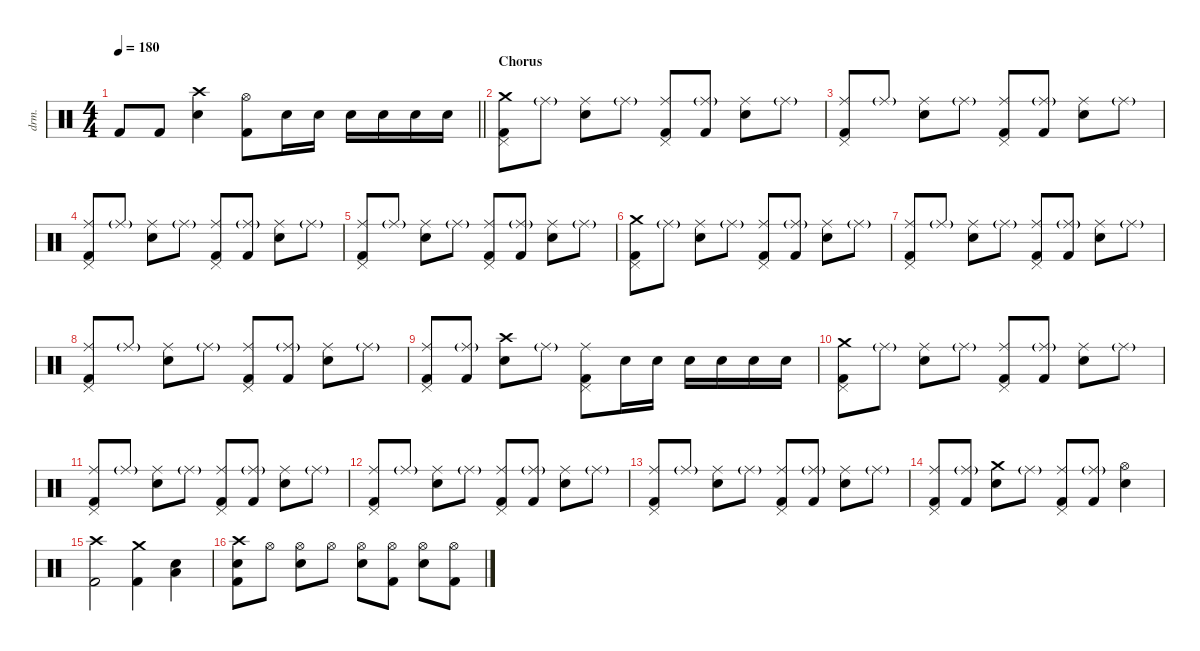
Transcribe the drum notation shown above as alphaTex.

\defaultSystemsLayout 4
\hideDynamics
\bracketExtendMode nobrackets
\otherSystemsTrackNameOrientation horizontal
\track ("Drums: Ritsu Tainaka" "drm.") {instrument percussion}
\staff {score}
\articulation defaults
\ts (4 4)
\tempo 180
\clef neutral
\barLineRight lightlight
\ks c "Kick (hit) 2".8{dy f beam Up} "Kick (hit) 2".8{beam Up}
("Crash high (hit)" "Snare (hit) 2").4{beam Down} ("Hi-Hat (open)" "Kick (hit) 2").8{beam Down} "Snare (hit) 2".16{beam Down} "Snare (hit) 2".16{beam Down} "Snare (hit) 2".16{beam Down} "Snare (hit) 2".16{beam Down} "Snare (hit) 2".16{beam Down} "Snare (hit) 2".16{beam Down} |
\section ("" "Chorus")
("Crash medium (hit)" "Pedal Hi-Hat (hit)" "Kick (hit) 2").8{beam Down} "Ride (middle)"{g}.8{dy mf beam Down} ("Ride (middle)" "Snare (hit) 2").8{dy f beam Down} "Ride (middle)"{g}.8{dy mf beam Down} ("Ride (middle)" "Pedal Hi-Hat (hit)" "Kick (hit) 2").8{dy f beam Up} ("Ride (middle)"{g} "Kick (hit) 2").8{beam Up} ("Ride (middle)" "Snare (hit) 2").8{beam Down} "Ride (middle)"{g}.8{dy mf beam Down} |
("Ride (middle)" "Pedal Hi-Hat (hit)" "Kick (hit) 2").8{dy f beam Up} "Ride (middle)"{g}.8{dy mf beam Up} ("Ride (middle)" "Snare (hit) 2").8{dy f beam Down} "Ride (middle)"{g}.8{dy mf beam Down} ("Ride (middle)" "Pedal Hi-Hat (hit)" "Kick (hit) 2").8{dy f beam Up} ("Ride (middle)"{g} "Kick (hit) 2").8{beam Up} ("Ride (middle)" "Snare (hit) 2").8{beam Down} "Ride (middle)"{g}.8{dy mf beam Down} |
("Ride (middle)" "Pedal Hi-Hat (hit)" "Kick (hit) 2").8{dy f beam Up} "Ride (middle)"{g}.8{dy mf beam Up} ("Ride (middle)" "Snare (hit) 2").8{dy f beam Down} "Ride (middle)"{g}.8{dy mf beam Down} ("Ride (middle)" "Pedal Hi-Hat (hit)" "Kick (hit) 2").8{dy f beam Up} ("Ride (middle)"{g} "Kick (hit) 2").8{beam Up} ("Ride (middle)" "Snare (hit) 2").8{beam Down} "Ride (middle)"{g}.8{dy mf beam Down} |
("Ride (middle)" "Pedal Hi-Hat (hit)" "Kick (hit) 2").8{dy f beam Up} "Ride (middle)"{g}.8{dy mf beam Up} ("Ride (middle)" "Snare (hit) 2").8{dy f beam Down} "Ride (middle)"{g}.8{dy mf beam Down} ("Ride (middle)" "Pedal Hi-Hat (hit)" "Kick (hit) 2").8{dy f beam Up} ("Ride (middle)"{g} "Kick (hit) 2").8{beam Up} ("Ride (middle)" "Snare (hit) 2").8{beam Down} "Ride (middle)"{g}.8{dy mf beam Down} |
("Crash medium (hit)" "Pedal Hi-Hat (hit)" "Kick (hit) 2").8{dy f beam Down} "Ride (middle)"{g}.8{dy mf beam Down} ("Ride (middle)" "Snare (hit) 2").8{dy f beam Down} "Ride (middle)"{g}.8{dy mf beam Down} ("Ride (middle)" "Pedal Hi-Hat (hit)" "Kick (hit) 2").8{dy f beam Up} ("Ride (middle)"{g} "Kick (hit) 2").8{beam Up} ("Ride (middle)" "Snare (hit) 2").8{beam Down} "Ride (middle)"{g}.8{dy mf beam Down} |
("Ride (middle)" "Pedal Hi-Hat (hit)" "Kick (hit) 2").8{dy f beam Up} "Ride (middle)"{g}.8{dy mf beam Up} ("Ride (middle)" "Snare (hit) 2").8{dy f beam Down} "Ride (middle)"{g}.8{dy mf beam Down} ("Ride (middle)" "Pedal Hi-Hat (hit)" "Kick (hit) 2").8{dy f beam Up} ("Ride (middle)"{g} "Kick (hit) 2").8{beam Up} ("Ride (middle)" "Snare (hit) 2").8{beam Down} "Ride (middle)"{g}.8{dy mf beam Down} |
("Ride (middle)" "Pedal Hi-Hat (hit)" "Kick (hit) 2").8{dy f beam Up} "Ride (middle)"{g}.8{dy mf beam Up} ("Ride (middle)" "Snare (hit) 2").8{dy f beam Down} "Ride (middle)"{g}.8{dy mf beam Down} ("Ride (middle)" "Pedal Hi-Hat (hit)" "Kick (hit) 2").8{dy f beam Up} ("Ride (middle)"{g} "Kick (hit) 2").8{beam Up} ("Ride (middle)" "Snare (hit) 2").8{beam Down} "Ride (middle)"{g}.8{dy mf beam Down} |
("Ride (middle)" "Pedal Hi-Hat (hit)" "Kick (hit) 2").8{dy f beam Up} ("Ride (middle)"{g} "Kick (hit) 2").8{beam Up} ("Crash high (hit)" "Snare (hit) 2").8{beam Down} "Ride (middle)"{g}.8{dy mf beam Down} ("Ride (middle)" "Pedal Hi-Hat (hit)" "Kick (hit) 2").8{dy f beam Down} "Snare (hit) 2".16{beam Down} "Snare (hit) 2".16{beam Down} "Snare (hit) 2".16{beam Down} "Snare (hit) 2".16{beam Down} "Snare (hit) 2".16{beam Down} "Snare (hit) 2".16{beam Down} |
("Crash medium (hit)" "Pedal Hi-Hat (hit)" "Kick (hit) 2").8{beam Down} "Ride (middle)"{g}.8{dy mf beam Down} ("Ride (middle)" "Snare (hit) 2").8{dy f beam Down} "Ride (middle)"{g}.8{dy mf beam Down} ("Ride (middle)" "Pedal Hi-Hat (hit)" "Kick (hit) 2").8{dy f beam Up} ("Ride (middle)"{g} "Kick (hit) 2").8{beam Up} ("Ride (middle)" "Snare (hit) 2").8{beam Down} "Ride (middle)"{g}.8{dy mf beam Down} |
("Ride (middle)" "Pedal Hi-Hat (hit)" "Kick (hit) 2").8{dy f beam Up} "Ride (middle)"{g}.8{dy mf beam Up} ("Ride (middle)" "Snare (hit) 2").8{dy f beam Down} "Ride (middle)"{g}.8{dy mf beam Down} ("Ride (middle)" "Pedal Hi-Hat (hit)" "Kick (hit) 2").8{dy f beam Up} ("Ride (middle)"{g} "Kick (hit) 2").8{beam Up} ("Ride (middle)" "Snare (hit) 2").8{beam Down} "Ride (middle)"{g}.8{dy mf beam Down} |
("Ride (middle)" "Pedal Hi-Hat (hit)" "Kick (hit) 2").8{dy f beam Up} "Ride (middle)"{g}.8{dy mf beam Up} ("Ride (middle)" "Snare (hit) 2").8{dy f beam Down} "Ride (middle)"{g}.8{dy mf beam Down} ("Ride (middle)" "Pedal Hi-Hat (hit)" "Kick (hit) 2").8{dy f beam Up} ("Ride (middle)"{g} "Kick (hit) 2").8{beam Up} ("Ride (middle)" "Snare (hit) 2").8{beam Down} "Ride (middle)"{g}.8{dy mf beam Down} |
("Ride (middle)" "Pedal Hi-Hat (hit)" "Kick (hit) 2").8{dy f beam Up} "Ride (middle)"{g}.8{dy mf beam Up} ("Ride (middle)" "Snare (hit) 2").8{dy f beam Down} "Ride (middle)"{g}.8{dy mf beam Down} ("Ride (middle)" "Pedal Hi-Hat (hit)" "Kick (hit) 2").8{dy f beam Up} ("Ride (middle)"{g} "Kick (hit) 2").8{beam Up} ("Ride (middle)" "Snare (hit) 2").8{beam Down} "Ride (middle)"{g}.8{dy mf beam Down} |
("Ride (middle)" "Pedal Hi-Hat (hit)" "Kick (hit) 2").8{dy f beam Up} ("Ride (middle)"{g} "Kick (hit) 2").8{beam Up} ("Crash medium (hit)" "Snare (hit) 2").8{beam Down} "Ride (middle)"{g}.8{dy mf beam Down} ("Ride (middle)" "Pedal Hi-Hat (hit)" "Kick (hit) 2").8{dy f beam Up} ("Ride (middle)"{g} "Kick (hit) 2").8{beam Up} ("Hi-Hat (open)" "Snare (hit) 2").4{beam Down} |
("Crash high (hit)" "Kick (hit) 2").2{beam Down} ("Crash medium (hit)" "Kick (hit) 2").4{beam Down} ("Snare (hit) 2" "Low Floor Tom (hit)").4{beam Down} |
("Crash high (hit)" "Snare (hit) 2" "Kick (hit) 2").8{beam Down} "Hi-Hat (open)".8{beam Down} ("Hi-Hat (open)" "Snare (hit) 2").8{beam Down} "Hi-Hat (open)".8{beam Down} ("Hi-Hat (open)" "Snare (hit) 2").8{beam Down} ("Hi-Hat (open)" "Kick (hit) 2").8{beam Down} ("Hi-Hat (open)" "Snare (hit) 2").8{beam Down} ("Hi-Hat (open)" "Kick (hit) 2").8{beam Down}
